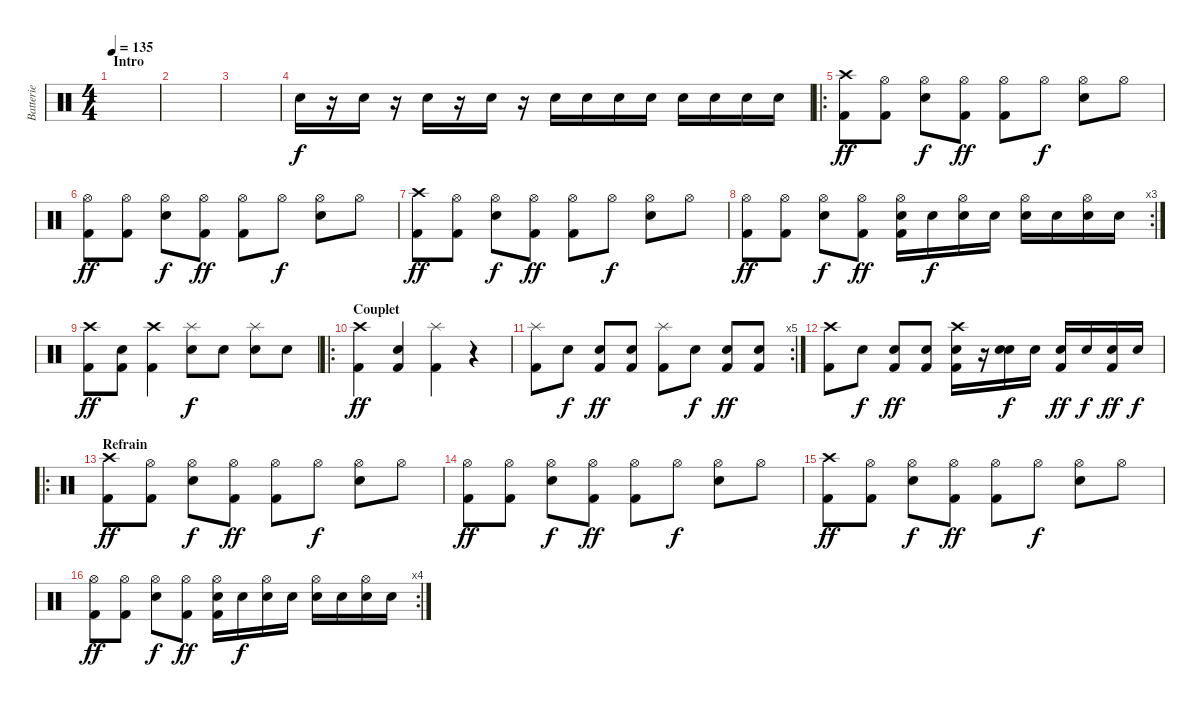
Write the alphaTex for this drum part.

\track ("Batterie" "Batterie") {instrument percussion}
\staff {score}
\articulation defaults
\ts (4 4)
\section ("" "Intro")
\tempo 135
\clef neutral
\ks c
|
|
|
"Snare (hit) 2".16 r.16 "Snare (hit) 2".16 r.16 "Snare (hit) 2".16 r.16 "Snare (hit) 2".16 r.16 "Snare (hit) 2".16 "Snare (hit) 2".16 "Snare (hit) 2".16 "Snare (hit) 2".16 "Snare (hit) 2".16 "Snare (hit) 2".16 "Snare (hit) 2".16 "Snare (hit) 2".16 |
\ro
("Crash high (hit)" "Kick (hit) 2").8{dy ff} ("Hi-Hat (open)" "Kick (hit) 2").8 ("Hi-Hat (open)" "Snare (hit) 2").8{dy f} ("Hi-Hat (open)" "Kick (hit) 2").8{dy ff} ("Hi-Hat (open)" "Kick (hit) 2").8 "Hi-Hat (open)".8{dy f} ("Hi-Hat (open)" "Snare (hit) 2").8 "Hi-Hat (open)".8 |
("Hi-Hat (open)" "Kick (hit) 2").8{dy ff} ("Hi-Hat (open)" "Kick (hit) 2").8 ("Hi-Hat (open)" "Snare (hit) 2").8{dy f} ("Hi-Hat (open)" "Kick (hit) 2").8{dy ff} ("Hi-Hat (open)" "Kick (hit) 2").8 "Hi-Hat (open)".8{dy f} ("Hi-Hat (open)" "Snare (hit) 2").8 "Hi-Hat (open)".8 |
("Crash high (hit)" "Kick (hit) 2").8{dy ff} ("Hi-Hat (open)" "Kick (hit) 2").8 ("Hi-Hat (open)" "Snare (hit) 2").8{dy f} ("Hi-Hat (open)" "Kick (hit) 2").8{dy ff} ("Hi-Hat (open)" "Kick (hit) 2").8 "Hi-Hat (open)".8{dy f} ("Hi-Hat (open)" "Snare (hit) 2").8 "Hi-Hat (open)".8 |
\rc 3
("Hi-Hat (open)" "Kick (hit) 2").8{dy ff} ("Hi-Hat (open)" "Kick (hit) 2").8 ("Hi-Hat (open)" "Snare (hit) 2").8{dy f} ("Hi-Hat (open)" "Kick (hit) 2").8{dy ff} ("Hi-Hat (open)" "Kick (hit) 2" "Snare (hit) 2").16 "Snare (hit) 2".16{dy f} ("Hi-Hat (open)" "Snare (hit) 2").16 "Snare (hit) 2".16 ("Hi-Hat (open)" "Snare (hit) 2").16 "Snare (hit) 2".16 ("Hi-Hat (open)" "Snare (hit) 2").16 "Snare (hit) 2".16 |
("Crash high (hit)" "Kick (hit) 2").8{dy ff} ("Kick (hit) 2" "Snare (hit) 2").8 ("Crash high (hit)" "Kick (hit) 2").4 ("Splash (hit)" "Snare (hit) 2").8{dy f} "Snare (hit) 2".8 ("Splash (hit)" "Snare (hit) 2").8 "Snare (hit) 2".8 |
\ro
\section ("" "Couplet")
("Crash high (hit)" "Kick (hit) 2").4{dy ff} ("Kick (hit) 2" "Electric Snare (hit)").4 ("Splash (hit)" "Kick (hit) 2").4 r.4 |
\rc 5
("Splash (hit)" "Kick (hit) 2").8 "Snare (hit) 2".8{dy f} ("Kick (hit) 2" "Electric Snare (hit)").8{dy ff} ("Kick (hit) 2" "Electric Snare (hit)").8 ("Splash (hit)" "Kick (hit) 2").8 "Snare (hit) 2".8{dy f} ("Kick (hit) 2" "Electric Snare (hit)").8{dy ff} ("Kick (hit) 2" "Electric Snare (hit)").8 |
("Crash high (hit)" "Kick (hit) 2").8 "Snare (hit) 2".8{dy f} ("Kick (hit) 2" "Electric Snare (hit)").8{dy ff} ("Kick (hit) 2" "Electric Snare (hit)").8 ("Crash high (hit)" "Kick (hit) 2" "Electric Snare (hit)").16 r.16 ("Electric Snare (hit)" "Snare (hit) 2").16{dy f} "Electric Snare (hit)".16 ("Kick (hit) 2" "Electric Snare (hit)").16{dy ff} "Electric Snare (hit)".16{dy f} ("Kick (hit) 2" "Electric Snare (hit)").16{dy ff} "Electric Snare (hit)".16{dy f} |
\ro
\section ("" "Refrain")
("Crash high (hit)" "Kick (hit) 2").8{dy ff} ("Hi-Hat (open)" "Kick (hit) 2").8 ("Hi-Hat (open)" "Snare (hit) 2").8{dy f} ("Hi-Hat (open)" "Kick (hit) 2").8{dy ff} ("Hi-Hat (open)" "Kick (hit) 2").8 "Hi-Hat (open)".8{dy f} ("Hi-Hat (open)" "Snare (hit) 2").8 "Hi-Hat (open)".8 |
("Hi-Hat (open)" "Kick (hit) 2").8{dy ff} ("Hi-Hat (open)" "Kick (hit) 2").8 ("Hi-Hat (open)" "Snare (hit) 2").8{dy f} ("Hi-Hat (open)" "Kick (hit) 2").8{dy ff} ("Hi-Hat (open)" "Kick (hit) 2").8 "Hi-Hat (open)".8{dy f} ("Hi-Hat (open)" "Snare (hit) 2").8 "Hi-Hat (open)".8 |
("Crash high (hit)" "Kick (hit) 2").8{dy ff} ("Hi-Hat (open)" "Kick (hit) 2").8 ("Hi-Hat (open)" "Snare (hit) 2").8{dy f} ("Hi-Hat (open)" "Kick (hit) 2").8{dy ff} ("Hi-Hat (open)" "Kick (hit) 2").8 "Hi-Hat (open)".8{dy f} ("Hi-Hat (open)" "Snare (hit) 2").8 "Hi-Hat (open)".8 |
\rc 4
("Hi-Hat (open)" "Kick (hit) 2").8{dy ff} ("Hi-Hat (open)" "Kick (hit) 2").8 ("Hi-Hat (open)" "Snare (hit) 2").8{dy f} ("Hi-Hat (open)" "Kick (hit) 2").8{dy ff} ("Hi-Hat (open)" "Kick (hit) 2" "Snare (hit) 2").16 "Snare (hit) 2".16{dy f} ("Hi-Hat (open)" "Snare (hit) 2").16 "Snare (hit) 2".16 ("Hi-Hat (open)" "Snare (hit) 2").16 "Snare (hit) 2".16 ("Hi-Hat (open)" "Snare (hit) 2").16 "Snare (hit) 2".16
